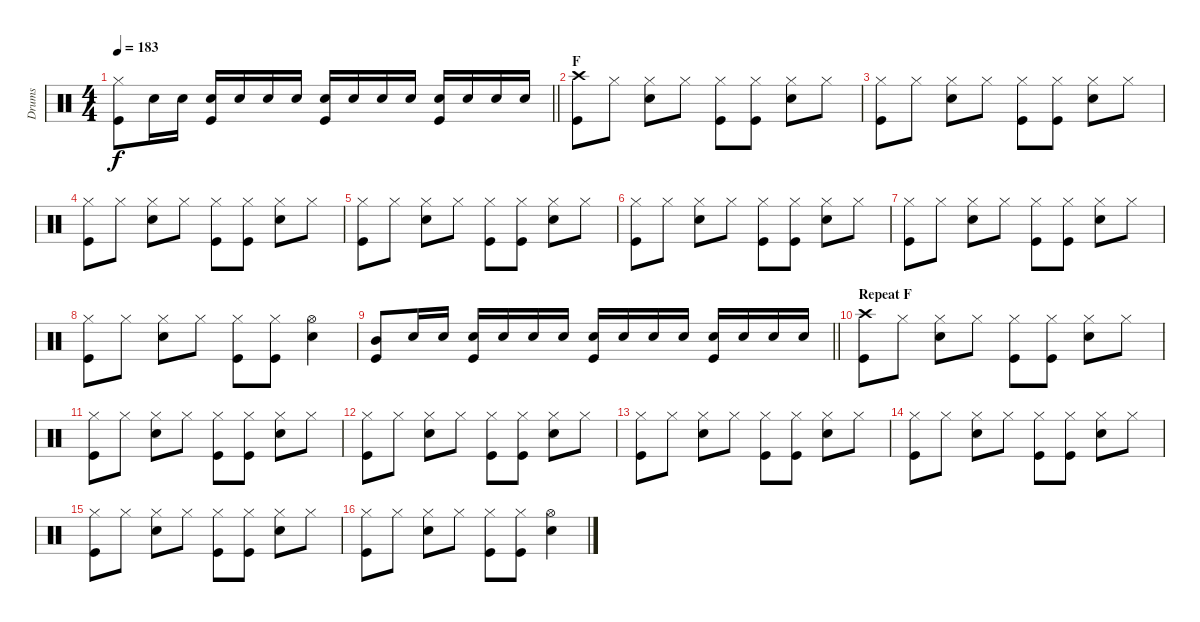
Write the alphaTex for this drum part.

\track ("Drums" "Drums") {instrument percussion}
\staff {score}
\articulation defaults
\ts (4 4)
\tempo 183
\clef neutral
\barLineRight lightlight
\ks c
("Hi-Hat (closed)" "Kick (hit)").8{dy f} "Electric Snare (hit)".16 "Electric Snare (hit)".16 ("Electric Snare (hit)" "Kick (hit)").16 "Electric Snare (hit)".16 "Electric Snare (hit)".16 "Electric Snare (hit)".16 ("Electric Snare (hit)" "Kick (hit)").16 "Electric Snare (hit)".16 "Electric Snare (hit)".16 "Electric Snare (hit)".16 ("Electric Snare (hit)" "Kick (hit)").16 "Electric Snare (hit)".16 "Electric Snare (hit)".16 "Electric Snare (hit)".16 |
\section ("" "F")
("Crash high (hit)" "Kick (hit)").8 "Hi-Hat (closed)".8 ("Hi-Hat (closed)" "Electric Snare (hit)").8 "Hi-Hat (closed)".8 ("Hi-Hat (closed)" "Kick (hit)").8 ("Hi-Hat (closed)" "Kick (hit)").8 ("Hi-Hat (closed)" "Electric Snare (hit)").8 "Hi-Hat (closed)".8 |
("Hi-Hat (closed)" "Kick (hit)").8 "Hi-Hat (closed)".8 ("Hi-Hat (closed)" "Electric Snare (hit)").8 "Hi-Hat (closed)".8 ("Hi-Hat (closed)" "Kick (hit)").8 ("Hi-Hat (closed)" "Kick (hit)").8 ("Hi-Hat (closed)" "Electric Snare (hit)").8 "Hi-Hat (closed)".8 |
("Hi-Hat (closed)" "Kick (hit)").8 "Hi-Hat (closed)".8 ("Hi-Hat (closed)" "Electric Snare (hit)").8 "Hi-Hat (closed)".8 ("Hi-Hat (closed)" "Kick (hit)").8 ("Hi-Hat (closed)" "Kick (hit)").8 ("Hi-Hat (closed)" "Electric Snare (hit)").8 "Hi-Hat (closed)".8 |
("Hi-Hat (closed)" "Kick (hit)").8 "Hi-Hat (closed)".8 ("Hi-Hat (closed)" "Electric Snare (hit)").8 "Hi-Hat (closed)".8 ("Hi-Hat (closed)" "Kick (hit)").8 ("Hi-Hat (closed)" "Kick (hit)").8 ("Hi-Hat (closed)" "Electric Snare (hit)").8 "Hi-Hat (closed)".8 |
("Hi-Hat (closed)" "Kick (hit)").8 "Hi-Hat (closed)".8 ("Hi-Hat (closed)" "Electric Snare (hit)").8 "Hi-Hat (closed)".8 ("Hi-Hat (closed)" "Kick (hit)").8 ("Hi-Hat (closed)" "Kick (hit)").8 ("Hi-Hat (closed)" "Electric Snare (hit)").8 "Hi-Hat (closed)".8 |
("Hi-Hat (closed)" "Kick (hit)").8 "Hi-Hat (closed)".8 ("Hi-Hat (closed)" "Electric Snare (hit)").8 "Hi-Hat (closed)".8 ("Hi-Hat (closed)" "Kick (hit)").8 ("Hi-Hat (closed)" "Kick (hit)").8 ("Hi-Hat (closed)" "Electric Snare (hit)").8 "Hi-Hat (closed)".8 |
("Hi-Hat (closed)" "Kick (hit)").8 "Hi-Hat (closed)".8 ("Hi-Hat (closed)" "Electric Snare (hit)").8 "Hi-Hat (closed)".8 ("Hi-Hat (closed)" "Kick (hit)").8 ("Hi-Hat (closed)" "Kick (hit)").8 ("Hi-Hat (open)" "Electric Snare (hit)").4 |
\barLineRight lightlight
("Mid Tom (hit)" "Kick (hit)").8 "Electric Snare (hit)".16 "Electric Snare (hit)".16 ("Electric Snare (hit)" "Kick (hit)").16 "Electric Snare (hit)".16 "Electric Snare (hit)".16 "Electric Snare (hit)".16 ("Electric Snare (hit)" "Kick (hit)").16 "Electric Snare (hit)".16 "Electric Snare (hit)".16 "Electric Snare (hit)".16 ("Electric Snare (hit)" "Kick (hit)").16 "Electric Snare (hit)".16 "Electric Snare (hit)".16 "Electric Snare (hit)".16 |
\section ("" "Repeat F")
("Crash high (hit)" "Kick (hit)").8 "Hi-Hat (closed)".8 ("Hi-Hat (closed)" "Electric Snare (hit)").8 "Hi-Hat (closed)".8 ("Hi-Hat (closed)" "Kick (hit)").8 ("Hi-Hat (closed)" "Kick (hit)").8 ("Hi-Hat (closed)" "Electric Snare (hit)").8 "Hi-Hat (closed)".8 |
("Hi-Hat (closed)" "Kick (hit)").8 "Hi-Hat (closed)".8 ("Hi-Hat (closed)" "Electric Snare (hit)").8 "Hi-Hat (closed)".8 ("Hi-Hat (closed)" "Kick (hit)").8 ("Hi-Hat (closed)" "Kick (hit)").8 ("Hi-Hat (closed)" "Electric Snare (hit)").8 "Hi-Hat (closed)".8 |
("Hi-Hat (closed)" "Kick (hit)").8 "Hi-Hat (closed)".8 ("Hi-Hat (closed)" "Electric Snare (hit)").8 "Hi-Hat (closed)".8 ("Hi-Hat (closed)" "Kick (hit)").8 ("Hi-Hat (closed)" "Kick (hit)").8 ("Hi-Hat (closed)" "Electric Snare (hit)").8 "Hi-Hat (closed)".8 |
("Hi-Hat (closed)" "Kick (hit)").8 "Hi-Hat (closed)".8 ("Hi-Hat (closed)" "Electric Snare (hit)").8 "Hi-Hat (closed)".8 ("Hi-Hat (closed)" "Kick (hit)").8 ("Hi-Hat (closed)" "Kick (hit)").8 ("Hi-Hat (closed)" "Electric Snare (hit)").8 "Hi-Hat (closed)".8 |
("Hi-Hat (closed)" "Kick (hit)").8 "Hi-Hat (closed)".8 ("Hi-Hat (closed)" "Electric Snare (hit)").8 "Hi-Hat (closed)".8 ("Hi-Hat (closed)" "Kick (hit)").8 ("Hi-Hat (closed)" "Kick (hit)").8 ("Hi-Hat (closed)" "Electric Snare (hit)").8 "Hi-Hat (closed)".8 |
("Hi-Hat (closed)" "Kick (hit)").8 "Hi-Hat (closed)".8 ("Hi-Hat (closed)" "Electric Snare (hit)").8 "Hi-Hat (closed)".8 ("Hi-Hat (closed)" "Kick (hit)").8 ("Hi-Hat (closed)" "Kick (hit)").8 ("Hi-Hat (closed)" "Electric Snare (hit)").8 "Hi-Hat (closed)".8 |
("Hi-Hat (closed)" "Kick (hit)").8 "Hi-Hat (closed)".8 ("Hi-Hat (closed)" "Electric Snare (hit)").8 "Hi-Hat (closed)".8 ("Hi-Hat (closed)" "Kick (hit)").8 ("Hi-Hat (closed)" "Kick (hit)").8 ("Hi-Hat (open)" "Electric Snare (hit)").4
